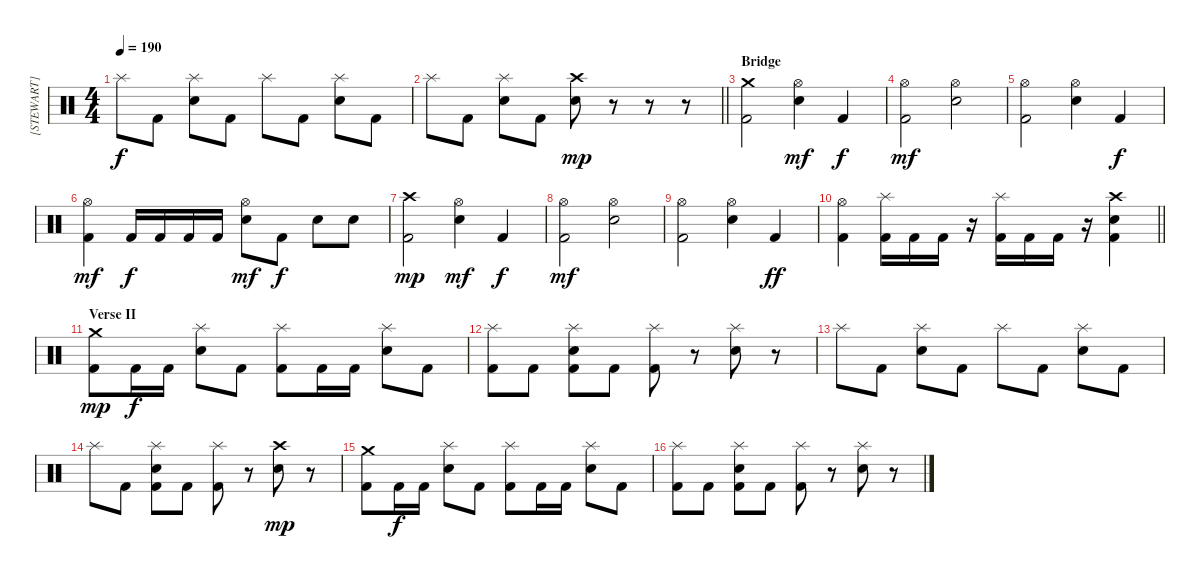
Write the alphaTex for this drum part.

\track ("[STEWART]" "[STEWART]") {instrument percussion}
\staff {score}
\articulation defaults
\ts (4 4)
\tempo 190
\clef neutral
\ks c "Splash (hit)".8{dy f} "Kick (hit) 2".8
("Splash (hit)" "Electric Snare (hit)").8 "Kick (hit) 2".8 "Splash (hit)".8 "Kick (hit) 2".8 ("Splash (hit)" "Electric Snare (hit)").8 "Kick (hit) 2".8 |
\barLineRight lightlight "Splash (hit)".8 "Kick (hit) 2".8
("Splash (hit)" "Electric Snare (hit)").8 "Kick (hit) 2".8 ("Crash high (hit)" "Electric Snare (hit)").8{dy mp} r.8 r.8 r.8 |
\section ("" "Bridge ")
("Crash medium (hit)" "Kick (hit) 2").2 ("Hi-Hat (open)" "Electric Snare (hit)").4{dy mf} "Kick (hit) 2".4{dy f} |
("Hi-Hat (open)" "Kick (hit) 2").2{dy mf} ("Hi-Hat (open)" "Electric Snare (hit)").2 |
("Hi-Hat (open)" "Kick (hit) 2").2 ("Hi-Hat (open)" "Electric Snare (hit)").4 "Kick (hit) 2".4{dy f} |
("Hi-Hat (open)" "Kick (hit) 2").4{dy mf} "Kick (hit) 2".16{dy f} "Kick (hit) 2".16 "Kick (hit) 2".16 "Kick (hit) 2".16 ("Hi-Hat (open)" "Electric Snare (hit)").8{dy mf} "Kick (hit) 2".8{dy f} "Electric Snare (hit)".8 "Electric Snare (hit)".8 |
("Crash high (hit)" "Kick (hit) 2").2{dy mp} ("Hi-Hat (open)" "Electric Snare (hit)").4{dy mf} "Kick (hit) 2".4{dy f} |
("Hi-Hat (open)" "Kick (hit) 2").2{dy mf} ("Hi-Hat (open)" "Electric Snare (hit)").2 |
("Hi-Hat (open)" "Kick (hit) 2").2 ("Hi-Hat (open)" "Electric Snare (hit)").4 "Kick (hit) 2".4{dy ff} |
\barLineRight lightlight
("Hi-Hat (open)" "Kick (hit) 2").4 ("Splash (hit)" "Kick (hit) 2").16 "Kick (hit) 2".16 "Kick (hit) 2".16 r.16 ("Splash (hit)" "Kick (hit) 2").16 "Kick (hit) 2".16 "Kick (hit) 2".16 r.16 ("Crash high (hit)" "Electric Snare (hit)" "Kick (hit) 2").4 |
\section ("" "Verse II")
("Crash medium (hit)" "Kick (hit) 2").8{dy mp} "Kick (hit) 2".16{dy f} "Kick (hit) 2".16 ("Splash (hit)" "Electric Snare (hit)").8 "Kick (hit) 2".8 ("Splash (hit)" "Kick (hit) 2").8 "Kick (hit) 2".16 "Kick (hit) 2".16 ("Splash (hit)" "Electric Snare (hit)").8 "Kick (hit) 2".8 |
("Splash (hit)" "Kick (hit) 2").8 "Kick (hit) 2".8 ("Splash (hit)" "Electric Snare (hit)" "Kick (hit) 2").8 "Kick (hit) 2".8 ("Splash (hit)" "Kick (hit) 2").8 r.8 ("Splash (hit)" "Electric Snare (hit)").8 r.8 |
"Splash (hit)".8 "Kick (hit) 2".8 ("Splash (hit)" "Electric Snare (hit)").8 "Kick (hit) 2".8 "Splash (hit)".8 "Kick (hit) 2".8 ("Splash (hit)" "Electric Snare (hit)").8 "Kick (hit) 2".8 |
"Splash (hit)".8 "Kick (hit) 2".8 ("Splash (hit)" "Electric Snare (hit)" "Kick (hit) 2").8 "Kick (hit) 2".8 ("Splash (hit)" "Kick (hit) 2").8 r.8 ("Crash high (hit)" "Electric Snare (hit)").8{dy mp} r.8 |
("Crash medium (hit)" "Kick (hit) 2").8 "Kick (hit) 2".16{dy f} "Kick (hit) 2".16 ("Splash (hit)" "Electric Snare (hit)").8 "Kick (hit) 2".8 ("Splash (hit)" "Kick (hit) 2").8 "Kick (hit) 2".16 "Kick (hit) 2".16 ("Splash (hit)" "Electric Snare (hit)").8 "Kick (hit) 2".8 |
("Splash (hit)" "Kick (hit) 2").8 "Kick (hit) 2".8 ("Splash (hit)" "Electric Snare (hit)" "Kick (hit) 2").8 "Kick (hit) 2".8 ("Splash (hit)" "Kick (hit) 2").8 r.8 ("Splash (hit)" "Electric Snare (hit)").8 r.8
